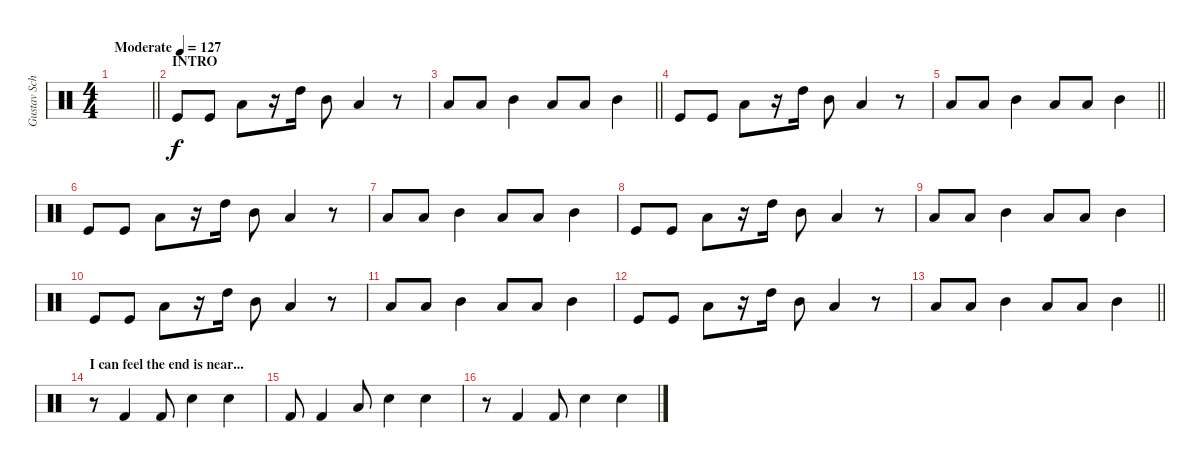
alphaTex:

\track ("Gustav Schäfer" "Gustav Sch") {instrument percussion}
\staff {score}
\articulation defaults
\ts (4 4)
\tempo (127 "Moderate")
\clef neutral
\barLineRight lightlight
\ks c
|
\section ("" "INTRO")
"Kick (hit)".8 "Kick (hit)".8 "Low Tom (hit)".8 r.16 "High Tom (hit)".16 "Mid Tom (hit)".8 "Low Tom (hit)".4 r.8 |
\barLineRight lightlight "Low Tom (hit)".8 "Low Tom (hit)".8 "Mid Tom (hit)".4 "Low Tom (hit)".8 "Low Tom (hit)".8 "Mid Tom (hit)".4
|
"Kick (hit)".8 "Kick (hit)".8 "Low Tom (hit)".8 r.16 "High Tom (hit)".16 "Mid Tom (hit)".8 "Low Tom (hit)".4 r.8 |
\barLineRight lightlight "Low Tom (hit)".8 "Low Tom (hit)".8 "Mid Tom (hit)".4 "Low Tom (hit)".8 "Low Tom (hit)".8 "Mid Tom (hit)".4
|
"Kick (hit)".8 "Kick (hit)".8 "Low Tom (hit)".8 r.16 "High Tom (hit)".16 "Mid Tom (hit)".8 "Low Tom (hit)".4 r.8 |
"Low Tom (hit)".8 "Low Tom (hit)".8 "Mid Tom (hit)".4 "Low Tom (hit)".8 "Low Tom (hit)".8 "Mid Tom (hit)".4 |
"Kick (hit)".8 "Kick (hit)".8 "Low Tom (hit)".8 r.16 "High Tom (hit)".16 "Mid Tom (hit)".8 "Low Tom (hit)".4 r.8 |
"Low Tom (hit)".8 "Low Tom (hit)".8 "Mid Tom (hit)".4 "Low Tom (hit)".8 "Low Tom (hit)".8 "Mid Tom (hit)".4 |
"Kick (hit)".8 "Kick (hit)".8 "Low Tom (hit)".8 r.16 "High Tom (hit)".16 "Mid Tom (hit)".8 "Low Tom (hit)".4 r.8 |
"Low Tom (hit)".8 "Low Tom (hit)".8 "Mid Tom (hit)".4 "Low Tom (hit)".8 "Low Tom (hit)".8 "Mid Tom (hit)".4 |
"Kick (hit)".8 "Kick (hit)".8 "Low Tom (hit)".8 r.16 "High Tom (hit)".16 "Mid Tom (hit)".8 "Low Tom (hit)".4 r.8 |
\barLineRight lightlight "Low Tom (hit)".8 "Low Tom (hit)".8 "Mid Tom (hit)".4 "Low Tom (hit)".8 "Low Tom (hit)".8 "Mid Tom (hit)".4
|
\section ("" "I can feel the end is near...")
r.8 "Kick (hit) 2".4 "Kick (hit) 2".8 "Electric Snare (hit)".4 "Electric Snare (hit)".4 |
"Kick (hit) 2".8 "Kick (hit) 2".4 "Low Tom (hit)".8 "Electric Snare (hit)".4 "Electric Snare (hit)".4 |
r.8 "Kick (hit) 2".4 "Kick (hit) 2".8 "Electric Snare (hit)".4 "Electric Snare (hit)".4
